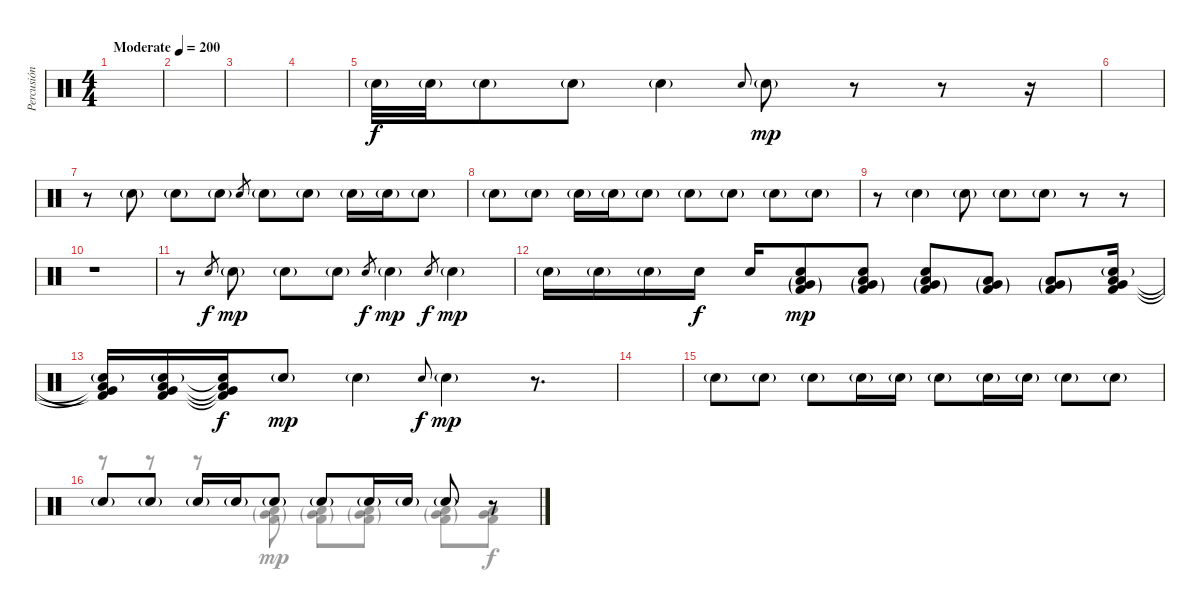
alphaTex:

\track ("Percusión" "Percusión") {instrument percussion}
\staff {score}
\articulation defaults
\voice
\ts (4 4)
\tempo (200 "Moderate")
\clef neutral
\ks c
|
|
|
|
"Electric Snare (hit)"{g}.32{volume 16} "Electric Snare (hit)"{g}.32 "Electric Snare (hit)"{g}.8 "Electric Snare (hit)"{g}.8 "Electric Snare (hit)"{g}.4 "Electric Snare (hit)".8{gr onbeat dy f} "Electric Snare (hit)"{g}.8{dy mp} r.8 r.8 r.16 |
|
r.8 "Electric Snare (hit)"{g}.8 "Electric Snare (hit)"{g}.8 "Electric Snare (hit)"{g}.8 "Electric Snare (hit)".8{gr} "Electric Snare (hit)"{g}.8 "Electric Snare (hit)"{g}.8 "Electric Snare (hit)"{g}.16 "Electric Snare (hit)"{g}.16 "Electric Snare (hit)"{g}.8 |
"Electric Snare (hit)"{g}.8 "Electric Snare (hit)"{g}.8 "Electric Snare (hit)"{g}.16 "Electric Snare (hit)"{g}.16 "Electric Snare (hit)"{g}.8 "Electric Snare (hit)"{g}.8 "Electric Snare (hit)"{g}.8 "Electric Snare (hit)"{g}.8 "Electric Snare (hit)"{g}.8 |
r.8 "Electric Snare (hit)"{g}.4 "Electric Snare (hit)"{g}.8 "Electric Snare (hit)"{g}.8 "Electric Snare (hit)"{g}.8 r.8 r.8 |
r.1 |
r.8 "Electric Snare (hit)".8{gr dy f} "Electric Snare (hit)"{g}.8{dy mp} "Electric Snare (hit)"{g}.8 "Electric Snare (hit)"{g}.8 "Electric Snare (hit)".8{gr dy f} "Electric Snare (hit)"{g}.4{dy mp} "Electric Snare (hit)".8{gr dy f} "Electric Snare (hit)"{g}.4{dy mp} |
"Electric Snare (hit)"{g}.16 "Electric Snare (hit)"{g}.16 "Electric Snare (hit)"{g}.16 "Electric Snare (hit)".16{dy f} "Electric Snare (hit)".16 ("Kick (hit) 2"{g} "Electric Snare (hit)" "Low Floor Tom (hit)"{g} "Very Low Tom (hit)"{g}).8{dy mp} ("Kick (hit) 2"{g} "Electric Snare (hit)" "Low Floor Tom (hit)"{g} "Very Low Tom (hit)"{g}).8 ("Kick (hit) 2"{g} "Electric Snare (hit)" "Low Floor Tom (hit)"{g} "Very Low Tom (hit)"{g}).8 ("Kick (hit) 2"{g} "Low Floor Tom (hit)"{g} "Very Low Tom (hit)"{g}).8 ("Kick (hit) 2"{g} "Low Floor Tom (hit)"{g} "Very Low Tom (hit)"{g}).8 ("Electric Snare (hit)"{g} "Kick (hit) 2" "Low Floor Tom (hit)" "Very Low Tom (hit)").16 |
("Electric Snare (hit)"{g} "Very Low Tom (hit)"{t} "Kick (hit) 2"{t} "Low Floor Tom (hit)"{t}).16 ("Electric Snare (hit)"{g} "Kick (hit) 2" "Low Floor Tom (hit)" "Very Low Tom (hit)").16 ("Electric Snare (hit)"{t} "Kick (hit) 2"{t} "Low Floor Tom (hit)"{t} "Very Low Tom (hit)"{t}).16{dy f} "Electric Snare (hit)"{g}.8{dy mp} "Electric Snare (hit)"{g}.4 "Electric Snare (hit)".8{gr onbeat dy f} "Electric Snare (hit)"{g}.4{dy mp} r.8{d} |
|
"Electric Snare (hit)"{g}.8 "Electric Snare (hit)"{g}.8 "Electric Snare (hit)"{g}.8 "Electric Snare (hit)"{g}.16 "Electric Snare (hit)"{g}.16 "Electric Snare (hit)"{g}.8 "Electric Snare (hit)"{g}.16 "Electric Snare (hit)"{g}.16 "Electric Snare (hit)"{g}.8 "Electric Snare (hit)"{g}.8 |
"Electric Snare (hit)"{g}.8 "Electric Snare (hit)"{g}.8 "Electric Snare (hit)"{g}.16 "Electric Snare (hit)"{g}.16 "Electric Snare (hit)"{g}.8 "Electric Snare (hit)"{g}.8 "Electric Snare (hit)"{g}.16 "Electric Snare (hit)"{g}.16 "Electric Snare (hit)"{g}.8 r.8
\voice
\clef neutral
\ottava regular
\simile none
\ks c
|
|
|
|
|
|
|
|
|
|
|
|
|
|
|
r.8 r.8 r.8 ("Low Floor Tom (hit)"{g} "Very Low Tom (hit)"{g} "Kick (hit) 2"{g}).8 ("Low Floor Tom (hit)"{g} "Very Low Tom (hit)"{g} "Kick (hit) 2"{g}).8 ("Low Floor Tom (hit)"{g} "Very Low Tom (hit)"{g} "Kick (hit) 2"{g}).8 ("Low Floor Tom (hit)"{g} "Very Low Tom (hit)"{g} "Kick (hit) 2"{g}).8 ("Low Floor Tom (hit)" "Very Low Tom (hit)" "Kick (hit) 2").8{dy f}
